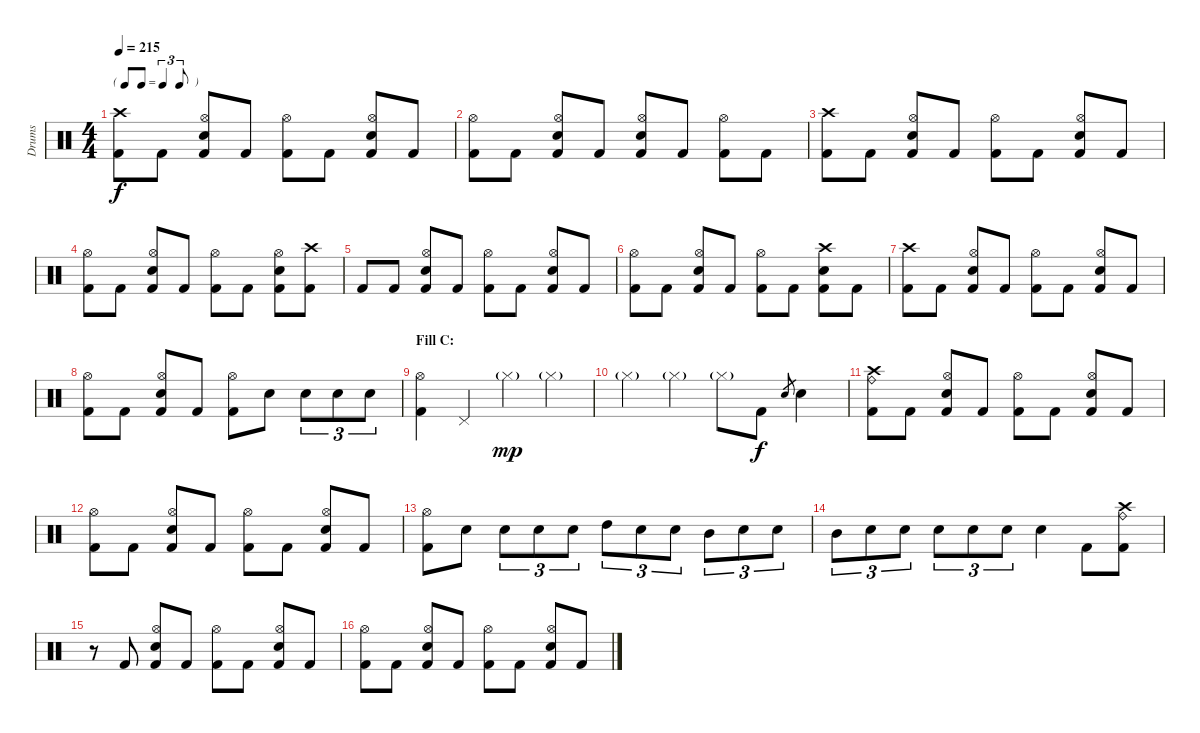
\track ("Drums" "Drums") {instrument percussion}
\staff {score}
\articulation defaults
\ts (4 4)
\tf triplet8th
\tempo 215
\clef neutral
\ks c
("Crash high (hit)" "Kick (hit) 2").8{dy f} "Kick (hit) 2".8 ("Hi-Hat (open)" "Electric Snare (hit)" "Kick (hit) 2").8 "Kick (hit) 2".8 ("Hi-Hat (open)" "Kick (hit) 2").8 "Kick (hit) 2".8 ("Hi-Hat (open)" "Electric Snare (hit)" "Kick (hit) 2").8 "Kick (hit) 2".8 |
("Hi-Hat (open)" "Kick (hit) 2").8 "Kick (hit) 2".8 ("Hi-Hat (open)" "Electric Snare (hit)" "Kick (hit) 2").8 "Kick (hit) 2".8 ("Hi-Hat (open)" "Electric Snare (hit)" "Kick (hit) 2").8 "Kick (hit) 2".8 ("Hi-Hat (open)" "Kick (hit) 2").8 "Kick (hit) 2".8 |
("Crash high (hit)" "Kick (hit) 2").8 "Kick (hit) 2".8 ("Hi-Hat (open)" "Electric Snare (hit)" "Kick (hit) 2").8 "Kick (hit) 2".8 ("Hi-Hat (open)" "Kick (hit) 2").8 "Kick (hit) 2".8 ("Hi-Hat (open)" "Electric Snare (hit)" "Kick (hit) 2").8 "Kick (hit) 2".8 |
("Hi-Hat (open)" "Kick (hit) 2").8 "Kick (hit) 2".8 ("Hi-Hat (open)" "Electric Snare (hit)" "Kick (hit) 2").8 "Kick (hit) 2".8 ("Hi-Hat (open)" "Kick (hit) 2").8 "Kick (hit) 2".8 ("Hi-Hat (open)" "Electric Snare (hit)" "Kick (hit) 2").8 ("Crash high (hit)" "Kick (hit) 2").8 |
"Kick (hit) 2".8 "Kick (hit) 2".8 ("Hi-Hat (open)" "Electric Snare (hit)" "Kick (hit) 2").8 "Kick (hit) 2".8 ("Hi-Hat (open)" "Kick (hit) 2").8 "Kick (hit) 2".8 ("Hi-Hat (open)" "Electric Snare (hit)" "Kick (hit) 2").8 "Kick (hit) 2".8 |
("Hi-Hat (open)" "Kick (hit) 2").8 "Kick (hit) 2".8 ("Hi-Hat (open)" "Electric Snare (hit)" "Kick (hit) 2").8 "Kick (hit) 2".8 ("Hi-Hat (open)" "Kick (hit) 2").8 "Kick (hit) 2".8 ("Crash high (hit)" "Electric Snare (hit)" "Kick (hit) 2").8 "Kick (hit) 2".8 |
("Crash high (hit)" "Kick (hit) 2").8 "Kick (hit) 2".8 ("Hi-Hat (open)" "Electric Snare (hit)" "Kick (hit) 2").8 "Kick (hit) 2".8 ("Hi-Hat (open)" "Kick (hit) 2").8 "Kick (hit) 2".8 ("Hi-Hat (open)" "Electric Snare (hit)" "Kick (hit) 2").8 "Kick (hit) 2".8 |
("Hi-Hat (open)" "Kick (hit) 2").8 "Kick (hit) 2".8 ("Hi-Hat (open)" "Electric Snare (hit)" "Kick (hit) 2").8 "Kick (hit) 2".8 ("Hi-Hat (open)" "Kick (hit) 2").8 "Electric Snare (hit)".8 "Electric Snare (hit)".8{tu (3 2)} "Electric Snare (hit)".8{tu (3 2)} "Electric Snare (hit)".8{tu (3 2)} |
\section ("" "Fill C:")
("Hi-Hat (open)" "Kick (hit) 2").4 "Pedal Hi-Hat (hit)".4 "Hi-Hat (closed)"{g}.4{dy mp} "Hi-Hat (closed)"{g}.4 |
"Hi-Hat (closed)"{g}.4 "Hi-Hat (closed)"{g}.4 "Hi-Hat (closed)"{g}.8 "Kick (hit) 2".8{dy f} "Electric Snare (hit)".8{gr} "Electric Snare (hit)".4 |
("Crash high (hit)" "Ride (bell)" "Kick (hit) 2").8 "Kick (hit) 2".8 ("Hi-Hat (open)" "Electric Snare (hit)" "Kick (hit) 2").8 "Kick (hit) 2".8 ("Hi-Hat (open)" "Kick (hit) 2").8 "Kick (hit) 2".8 ("Hi-Hat (open)" "Electric Snare (hit)" "Kick (hit) 2").8 "Kick (hit) 2".8 |
("Hi-Hat (open)" "Kick (hit) 2").8 "Kick (hit) 2".8 ("Hi-Hat (open)" "Electric Snare (hit)" "Kick (hit) 2").8 "Kick (hit) 2".8 ("Hi-Hat (open)" "Kick (hit) 2").8 "Kick (hit) 2".8 ("Hi-Hat (open)" "Electric Snare (hit)" "Kick (hit) 2").8 "Kick (hit) 2".8 |
("Hi-Hat (open)" "Kick (hit) 2").8 "Electric Snare (hit)".8 "Electric Snare (hit)".8{tu (3 2)} "Electric Snare (hit)".8{tu (3 2)} "Electric Snare (hit)".8{tu (3 2)} "High Tom (hit)".8{tu (3 2)} "Electric Snare (hit)".8{tu (3 2)} "Electric Snare (hit)".8{tu (3 2)} "Mid Tom (hit)".8{tu (3 2)} "Electric Snare (hit)".8{tu (3 2)} "Electric Snare (hit)".8{tu (3 2)} |
"Mid Tom (hit)".8{tu (3 2)} "Electric Snare (hit)".8{tu (3 2)} "Electric Snare (hit)".8{tu (3 2)} "Electric Snare (hit)".8{tu (3 2)} "Electric Snare (hit)".8{tu (3 2)} "Electric Snare (hit)".8{tu (3 2)} "Electric Snare (hit)".4 "Kick (hit) 2".8 ("Crash high (hit)" "Ride (bell)" "Kick (hit) 2").8 |
r.8 "Kick (hit) 2".8 ("Hi-Hat (open)" "Electric Snare (hit)" "Kick (hit) 2").8 "Kick (hit) 2".8 ("Hi-Hat (open)" "Kick (hit) 2").8 "Kick (hit) 2".8 ("Hi-Hat (open)" "Electric Snare (hit)" "Kick (hit) 2").8 "Kick (hit) 2".8 |
("Hi-Hat (open)" "Kick (hit) 2").8 "Kick (hit) 2".8 ("Hi-Hat (open)" "Electric Snare (hit)" "Kick (hit) 2").8 "Kick (hit) 2".8 ("Hi-Hat (open)" "Kick (hit) 2").8 "Kick (hit) 2".8 ("Hi-Hat (open)" "Electric Snare (hit)" "Kick (hit) 2").8 "Kick (hit) 2".8
